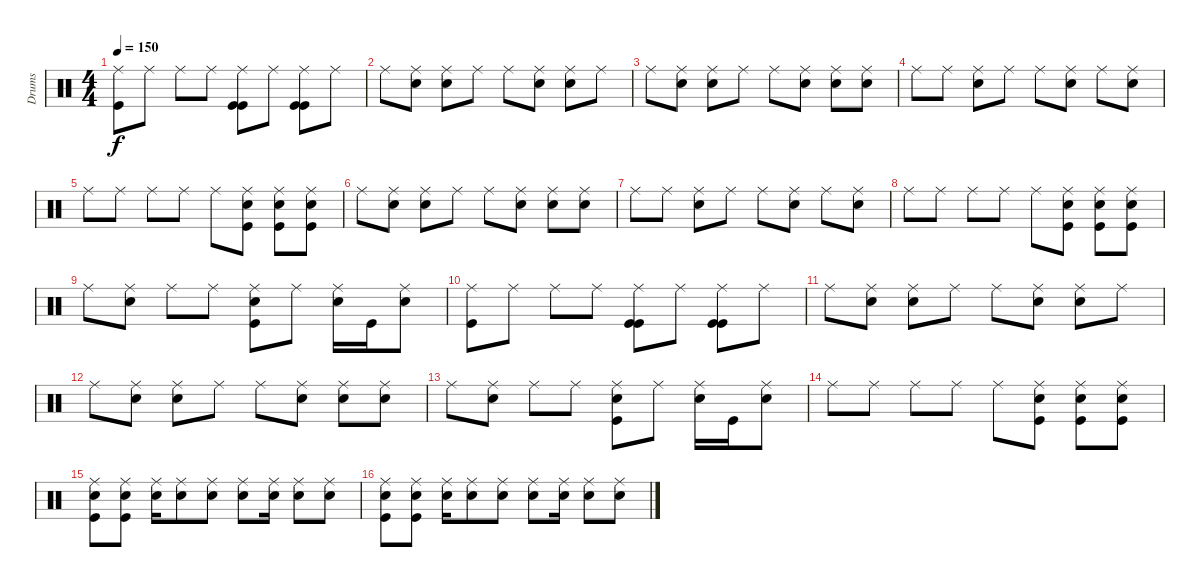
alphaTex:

\track ("Drums" "Drums") {instrument percussion}
\staff {score}
\articulation defaults
\ts (4 4)
\tempo 150
\clef neutral
\ks c
("Ride (middle)" "Kick (hit)").8{dy f} "Ride (middle)".8 "Ride (middle)".8 "Ride (middle)".8 ("Ride (middle)" "Kick (hit)" "Kick (hit)").8 "Ride (middle)".8 ("Ride (middle)" "Kick (hit)" "Kick (hit)").8 "Ride (middle)".8 |
"Ride (middle)".8 ("Ride (middle)" "Electric Snare (hit)").8 ("Ride (middle)" "Electric Snare (hit)").8 "Ride (middle)".8 "Ride (middle)".8 ("Ride (middle)" "Electric Snare (hit)").8 ("Ride (middle)" "Electric Snare (hit)").8 "Ride (middle)".8 |
"Ride (middle)".8 ("Ride (middle)" "Electric Snare (hit)").8 ("Ride (middle)" "Electric Snare (hit)").8 "Ride (middle)".8 "Ride (middle)".8 ("Ride (middle)" "Electric Snare (hit)").8 ("Ride (middle)" "Electric Snare (hit)").8 ("Ride (middle)" "Electric Snare (hit)").8 |
"Ride (middle)".8 "Ride (middle)".8 ("Ride (middle)" "Electric Snare (hit)").8 "Ride (middle)".8 "Ride (middle)".8 ("Ride (middle)" "Electric Snare (hit)").8 "Ride (middle)".8 ("Ride (middle)" "Electric Snare (hit)").8 |
"Ride (middle)".8 "Ride (middle)".8 "Ride (middle)".8 "Ride (middle)".8 "Ride (middle)".8 ("Ride (middle)" "Snare (hit) 2" "Kick (hit)").8 ("Ride (middle)" "Snare (hit) 2" "Kick (hit)").8 ("Ride (middle)" "Snare (hit) 2" "Kick (hit)").8 |
"Ride (middle)".8 ("Ride (middle)" "Electric Snare (hit)").8 ("Ride (middle)" "Electric Snare (hit)").8 "Ride (middle)".8 "Ride (middle)".8 ("Ride (middle)" "Electric Snare (hit)").8 ("Ride (middle)" "Electric Snare (hit)").8 ("Ride (middle)" "Electric Snare (hit)").8 |
"Ride (middle)".8 "Ride (middle)".8 ("Ride (middle)" "Electric Snare (hit)").8 "Ride (middle)".8 "Ride (middle)".8 ("Ride (middle)" "Electric Snare (hit)").8 "Ride (middle)".8 ("Ride (middle)" "Electric Snare (hit)").8 |
"Ride (middle)".8 "Ride (middle)".8 "Ride (middle)".8 "Ride (middle)".8 "Ride (middle)".8 ("Ride (middle)" "Snare (hit) 2" "Kick (hit)").8 ("Ride (middle)" "Snare (hit) 2" "Kick (hit)").8 ("Ride (middle)" "Snare (hit) 2" "Kick (hit)").8 |
"Ride (middle)".8 ("Snare (hit) 2" "Ride (middle)").8 "Ride (middle)".8 "Ride (middle)".8 ("Snare (hit) 2" "Kick (hit)" "Ride (middle)").8 "Ride (middle)".8 ("Electric Snare (hit)" "Ride (middle)").16 "Kick (hit)".16 ("Electric Snare (hit)" "Ride (middle)").8 |
("Ride (middle)" "Kick (hit)").8 "Ride (middle)".8 "Ride (middle)".8 "Ride (middle)".8 ("Ride (middle)" "Kick (hit)" "Kick (hit)").8 "Ride (middle)".8 ("Ride (middle)" "Kick (hit)" "Kick (hit)").8 "Ride (middle)".8 |
"Ride (middle)".8 ("Ride (middle)" "Electric Snare (hit)").8 ("Ride (middle)" "Electric Snare (hit)").8 "Ride (middle)".8 "Ride (middle)".8 ("Ride (middle)" "Electric Snare (hit)").8 ("Ride (middle)" "Electric Snare (hit)").8 "Ride (middle)".8 |
"Ride (middle)".8 ("Ride (middle)" "Electric Snare (hit)").8 ("Ride (middle)" "Electric Snare (hit)").8 "Ride (middle)".8 "Ride (middle)".8 ("Ride (middle)" "Electric Snare (hit)").8 ("Ride (middle)" "Electric Snare (hit)").8 ("Ride (middle)" "Electric Snare (hit)").8 |
"Ride (middle)".8 ("Snare (hit) 2" "Ride (middle)").8 "Ride (middle)".8 "Ride (middle)".8 ("Snare (hit) 2" "Kick (hit)" "Ride (middle)").8 "Ride (middle)".8 ("Electric Snare (hit)" "Ride (middle)").16 "Kick (hit)".16 ("Electric Snare (hit)" "Ride (middle)").8 |
"Ride (middle)".8 "Ride (middle)".8 "Ride (middle)".8 "Ride (middle)".8 "Ride (middle)".8 ("Ride (middle)" "Snare (hit) 2" "Kick (hit)").8 ("Ride (middle)" "Snare (hit) 2" "Kick (hit)").8 ("Ride (middle)" "Snare (hit) 2" "Kick (hit)").8 |
("Ride (middle)" "Electric Snare (hit)" "Kick (hit)").8 ("Ride (middle)" "Electric Snare (hit)" "Kick (hit)").8 ("Ride (middle)" "Electric Snare (hit)").16 ("Ride (middle)" "Electric Snare (hit)").8 ("Ride (middle)" "Electric Snare (hit)").8 ("Ride (middle)" "Electric Snare (hit)").8 ("Ride (middle)" "Electric Snare (hit)").16 ("Ride (middle)" "Electric Snare (hit)").8 ("Ride (middle)" "Electric Snare (hit)").8 |
("Ride (middle)" "Electric Snare (hit)" "Kick (hit)").8 ("Ride (middle)" "Electric Snare (hit)" "Kick (hit)").8 ("Ride (middle)" "Electric Snare (hit)").16 ("Ride (middle)" "Electric Snare (hit)").8 ("Ride (middle)" "Electric Snare (hit)").8 ("Ride (middle)" "Electric Snare (hit)").8 ("Ride (middle)" "Electric Snare (hit)").16 ("Ride (middle)" "Electric Snare (hit)").8 ("Ride (middle)" "Electric Snare (hit)").8
